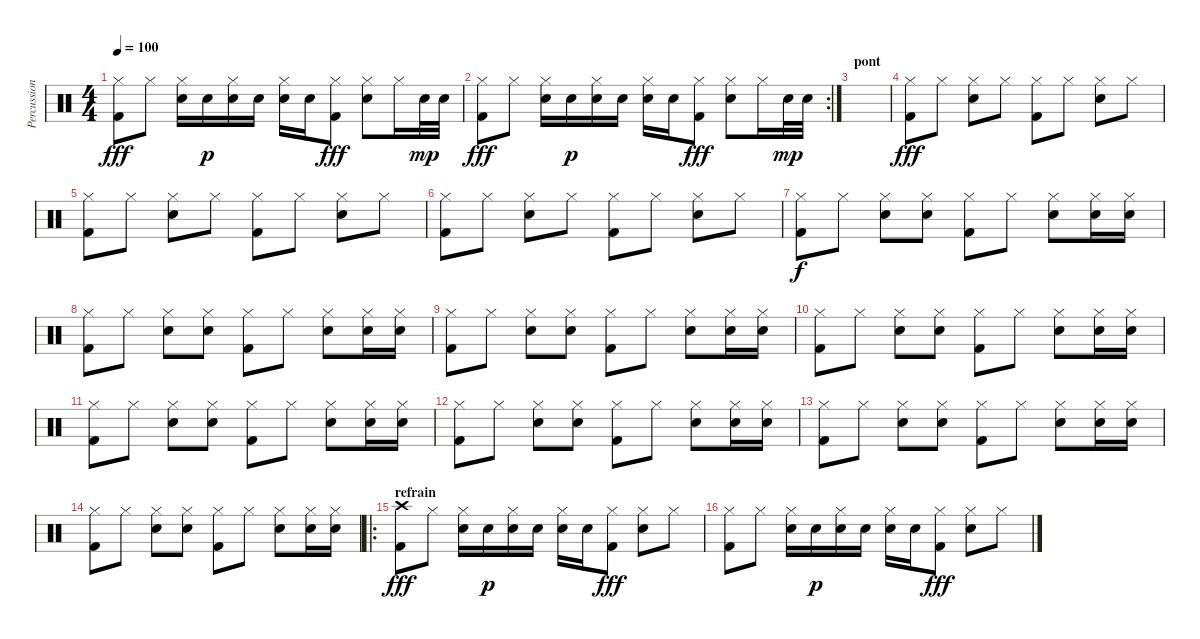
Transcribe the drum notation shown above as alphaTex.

\track ("Percussions" "Percussion") {instrument percussion}
\staff {score}
\articulation defaults
\ts (4 4)
\tempo 100
\clef neutral
\ks c
("Hi-Hat (closed)" "Kick (hit) 2").8{dy fff} "Hi-Hat (closed)".8 ("Hi-Hat (closed)" "Snare (hit) 2").16 "Snare (hit) 2".16{dy p} ("Hi-Hat (closed)" "Snare (hit) 2").16 "Snare (hit) 2".16 ("Hi-Hat (closed)" "Snare (hit) 2").16 "Snare (hit) 2".16 ("Hi-Hat (closed)" "Kick (hit) 2").8{dy fff} ("Hi-Hat (closed)" "Snare (hit) 2").8 "Hi-Hat (closed)".16 "Snare (hit) 2".32{dy mp} "Snare (hit) 2".32 |
\rc 2
("Hi-Hat (closed)" "Kick (hit) 2").8{dy fff} "Hi-Hat (closed)".8 ("Hi-Hat (closed)" "Snare (hit) 2").16 "Snare (hit) 2".16{dy p} ("Hi-Hat (closed)" "Snare (hit) 2").16 "Snare (hit) 2".16 ("Hi-Hat (closed)" "Snare (hit) 2").16 "Snare (hit) 2".16 ("Hi-Hat (closed)" "Kick (hit) 2").8{dy fff} ("Hi-Hat (closed)" "Snare (hit) 2").8 "Hi-Hat (closed)".16 "Snare (hit) 2".32{dy mp} "Snare (hit) 2".32 |
\section ("" "pont")
|
("Hi-Hat (closed)" "Kick (hit) 2").8{dy fff} "Hi-Hat (closed)".8 ("Hi-Hat (closed)" "Snare (hit) 2").8 "Hi-Hat (closed)".8 ("Hi-Hat (closed)" "Kick (hit) 2").8 "Hi-Hat (closed)".8 ("Hi-Hat (closed)" "Snare (hit) 2").8 "Hi-Hat (closed)".8 |
("Hi-Hat (closed)" "Kick (hit) 2").8 "Hi-Hat (closed)".8 ("Hi-Hat (closed)" "Snare (hit) 2").8 "Hi-Hat (closed)".8 ("Hi-Hat (closed)" "Kick (hit) 2").8 "Hi-Hat (closed)".8 ("Hi-Hat (closed)" "Snare (hit) 2").8 "Hi-Hat (closed)".8 |
("Hi-Hat (closed)" "Kick (hit) 2").8 "Hi-Hat (closed)".8 ("Hi-Hat (closed)" "Snare (hit) 2").8 "Hi-Hat (closed)".8 ("Hi-Hat (closed)" "Kick (hit) 2").8 "Hi-Hat (closed)".8 ("Hi-Hat (closed)" "Snare (hit) 2").8 "Hi-Hat (closed)".8 |
("Hi-Hat (closed)" "Kick (hit) 2").8{dy f} "Hi-Hat (closed)".8 ("Hi-Hat (closed)" "Snare (hit) 2").8 ("Hi-Hat (closed)" "Snare (hit) 2").8 ("Hi-Hat (closed)" "Kick (hit) 2").8 "Hi-Hat (closed)".8 ("Hi-Hat (closed)" "Snare (hit) 2").8 ("Hi-Hat (closed)" "Snare (hit) 2").16 ("Hi-Hat (closed)" "Snare (hit) 2").16 |
("Hi-Hat (closed)" "Kick (hit) 2").8 "Hi-Hat (closed)".8 ("Hi-Hat (closed)" "Snare (hit) 2").8 ("Hi-Hat (closed)" "Snare (hit) 2").8 ("Hi-Hat (closed)" "Kick (hit) 2").8 "Hi-Hat (closed)".8 ("Hi-Hat (closed)" "Snare (hit) 2").8 ("Hi-Hat (closed)" "Snare (hit) 2").16 ("Hi-Hat (closed)" "Snare (hit) 2").16 |
("Hi-Hat (closed)" "Kick (hit) 2").8 "Hi-Hat (closed)".8 ("Hi-Hat (closed)" "Snare (hit) 2").8 ("Hi-Hat (closed)" "Snare (hit) 2").8 ("Hi-Hat (closed)" "Kick (hit) 2").8 "Hi-Hat (closed)".8 ("Hi-Hat (closed)" "Snare (hit) 2").8 ("Hi-Hat (closed)" "Snare (hit) 2").16 ("Hi-Hat (closed)" "Snare (hit) 2").16 |
("Hi-Hat (closed)" "Kick (hit) 2").8 "Hi-Hat (closed)".8 ("Hi-Hat (closed)" "Snare (hit) 2").8 ("Hi-Hat (closed)" "Snare (hit) 2").8 ("Hi-Hat (closed)" "Kick (hit) 2").8 "Hi-Hat (closed)".8 ("Hi-Hat (closed)" "Snare (hit) 2").8 ("Hi-Hat (closed)" "Snare (hit) 2").16 ("Hi-Hat (closed)" "Snare (hit) 2").16 |
("Hi-Hat (closed)" "Kick (hit) 2").8 "Hi-Hat (closed)".8 ("Hi-Hat (closed)" "Snare (hit) 2").8 ("Hi-Hat (closed)" "Snare (hit) 2").8 ("Hi-Hat (closed)" "Kick (hit) 2").8 "Hi-Hat (closed)".8 ("Hi-Hat (closed)" "Snare (hit) 2").8 ("Hi-Hat (closed)" "Snare (hit) 2").16 ("Hi-Hat (closed)" "Snare (hit) 2").16 |
("Hi-Hat (closed)" "Kick (hit) 2").8 "Hi-Hat (closed)".8 ("Hi-Hat (closed)" "Snare (hit) 2").8 ("Hi-Hat (closed)" "Snare (hit) 2").8 ("Hi-Hat (closed)" "Kick (hit) 2").8 "Hi-Hat (closed)".8 ("Hi-Hat (closed)" "Snare (hit) 2").8 ("Hi-Hat (closed)" "Snare (hit) 2").16 ("Hi-Hat (closed)" "Snare (hit) 2").16 |
("Hi-Hat (closed)" "Kick (hit) 2").8 "Hi-Hat (closed)".8 ("Hi-Hat (closed)" "Snare (hit) 2").8 ("Hi-Hat (closed)" "Snare (hit) 2").8 ("Hi-Hat (closed)" "Kick (hit) 2").8 "Hi-Hat (closed)".8 ("Hi-Hat (closed)" "Snare (hit) 2").8 ("Hi-Hat (closed)" "Snare (hit) 2").16 ("Hi-Hat (closed)" "Snare (hit) 2").16 |
("Hi-Hat (closed)" "Kick (hit) 2").8 "Hi-Hat (closed)".8 ("Hi-Hat (closed)" "Snare (hit) 2").8 ("Hi-Hat (closed)" "Snare (hit) 2").8 ("Hi-Hat (closed)" "Kick (hit) 2").8 "Hi-Hat (closed)".8 ("Hi-Hat (closed)" "Snare (hit) 2").8 ("Hi-Hat (closed)" "Snare (hit) 2").16 ("Hi-Hat (closed)" "Snare (hit) 2").16 |
\ro
\section ("" "refrain")
("Crash high (hit)" "Kick (hit) 2").8{dy fff} "Hi-Hat (closed)".8 ("Hi-Hat (closed)" "Snare (hit) 2").16 "Snare (hit) 2".16{dy p} ("Hi-Hat (closed)" "Snare (hit) 2").16 "Snare (hit) 2".16 ("Hi-Hat (closed)" "Snare (hit) 2").16 "Snare (hit) 2".16 ("Hi-Hat (closed)" "Kick (hit) 2").8{dy fff} ("Hi-Hat (closed)" "Snare (hit) 2").8 "Hi-Hat (closed)".8 |
("Hi-Hat (closed)" "Kick (hit) 2").8 "Hi-Hat (closed)".8 ("Hi-Hat (closed)" "Snare (hit) 2").16 "Snare (hit) 2".16{dy p} ("Hi-Hat (closed)" "Snare (hit) 2").16 "Snare (hit) 2".16 ("Hi-Hat (closed)" "Snare (hit) 2").16 "Snare (hit) 2".16 ("Hi-Hat (closed)" "Kick (hit) 2").8{dy fff} ("Hi-Hat (closed)" "Snare (hit) 2").8 "Hi-Hat (closed)".8
